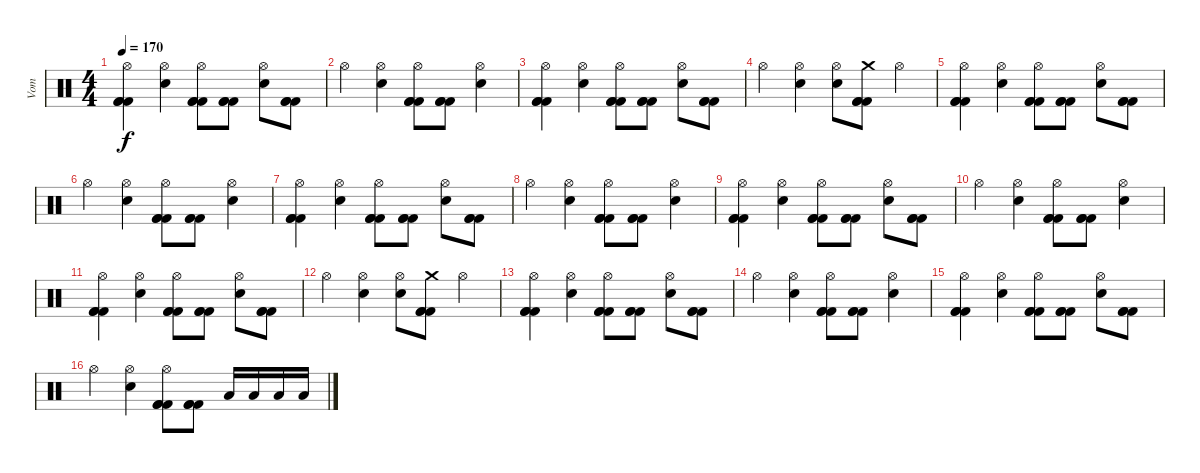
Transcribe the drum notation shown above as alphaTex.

\track ("Vom" "Vom") {instrument percussion}
\staff {score}
\articulation defaults
\ts (4 4)
\tempo 170
\clef neutral
\ks c
("Hi-Hat (open)" "Kick (hit) 2" "Kick (hit) 2" "Kick (hit) 2").4{dy f} ("Hi-Hat (open)" "Snare (hit) 2").4 ("Hi-Hat (open)" "Kick (hit) 2" "Kick (hit) 2" "Kick (hit) 2").8 ("Kick (hit) 2" "Kick (hit) 2" "Kick (hit) 2").8 ("Hi-Hat (open)" "Snare (hit) 2").8 ("Kick (hit) 2" "Kick (hit) 2" "Kick (hit) 2").8 |
"Hi-Hat (open)".4 ("Hi-Hat (open)" "Snare (hit) 2").4 ("Hi-Hat (open)" "Kick (hit) 2" "Kick (hit) 2" "Kick (hit) 2").8 ("Kick (hit) 2" "Kick (hit) 2" "Kick (hit) 2").8 ("Hi-Hat (open)" "Snare (hit) 2").4 |
("Hi-Hat (open)" "Kick (hit) 2" "Kick (hit) 2" "Kick (hit) 2").4 ("Hi-Hat (open)" "Snare (hit) 2").4 ("Hi-Hat (open)" "Kick (hit) 2" "Kick (hit) 2" "Kick (hit) 2").8 ("Kick (hit) 2" "Kick (hit) 2" "Kick (hit) 2").8 ("Hi-Hat (open)" "Snare (hit) 2").8 ("Kick (hit) 2" "Kick (hit) 2" "Kick (hit) 2").8 |
"Hi-Hat (open)".4 ("Hi-Hat (open)" "Snare (hit) 2").4 ("Hi-Hat (open)" "Snare (hit) 2").8 ("Crash medium (hit)" "Kick (hit) 2" "Kick (hit) 2" "Kick (hit) 2").8 "Hi-Hat (open)".4 |
("Hi-Hat (open)" "Kick (hit) 2" "Kick (hit) 2" "Kick (hit) 2").4 ("Hi-Hat (open)" "Snare (hit) 2").4 ("Hi-Hat (open)" "Kick (hit) 2" "Kick (hit) 2" "Kick (hit) 2").8 ("Kick (hit) 2" "Kick (hit) 2" "Kick (hit) 2").8 ("Hi-Hat (open)" "Snare (hit) 2").8 ("Kick (hit) 2" "Kick (hit) 2" "Kick (hit) 2").8 |
"Hi-Hat (open)".4 ("Hi-Hat (open)" "Snare (hit) 2").4 ("Hi-Hat (open)" "Kick (hit) 2" "Kick (hit) 2" "Kick (hit) 2").8 ("Kick (hit) 2" "Kick (hit) 2" "Kick (hit) 2").8 ("Hi-Hat (open)" "Snare (hit) 2").4 |
("Hi-Hat (open)" "Kick (hit) 2" "Kick (hit) 2" "Kick (hit) 2").4 ("Hi-Hat (open)" "Snare (hit) 2").4 ("Hi-Hat (open)" "Kick (hit) 2" "Kick (hit) 2" "Kick (hit) 2").8 ("Kick (hit) 2" "Kick (hit) 2" "Kick (hit) 2").8 ("Hi-Hat (open)" "Snare (hit) 2").8 ("Kick (hit) 2" "Kick (hit) 2" "Kick (hit) 2").8 |
"Hi-Hat (open)".4 ("Hi-Hat (open)" "Snare (hit) 2").4 ("Hi-Hat (open)" "Kick (hit) 2" "Kick (hit) 2" "Kick (hit) 2").8 ("Kick (hit) 2" "Kick (hit) 2" "Kick (hit) 2").8 ("Hi-Hat (open)" "Snare (hit) 2").4 |
("Hi-Hat (open)" "Kick (hit) 2" "Kick (hit) 2" "Kick (hit) 2").4 ("Hi-Hat (open)" "Snare (hit) 2").4 ("Hi-Hat (open)" "Kick (hit) 2" "Kick (hit) 2" "Kick (hit) 2").8 ("Kick (hit) 2" "Kick (hit) 2" "Kick (hit) 2").8 ("Hi-Hat (open)" "Snare (hit) 2").8 ("Kick (hit) 2" "Kick (hit) 2" "Kick (hit) 2").8 |
"Hi-Hat (open)".4 ("Hi-Hat (open)" "Snare (hit) 2").4 ("Hi-Hat (open)" "Kick (hit) 2" "Kick (hit) 2" "Kick (hit) 2").8 ("Kick (hit) 2" "Kick (hit) 2" "Kick (hit) 2").8 ("Hi-Hat (open)" "Snare (hit) 2").4 |
("Hi-Hat (open)" "Kick (hit) 2" "Kick (hit) 2" "Kick (hit) 2").4 ("Hi-Hat (open)" "Snare (hit) 2").4 ("Hi-Hat (open)" "Kick (hit) 2" "Kick (hit) 2" "Kick (hit) 2").8 ("Kick (hit) 2" "Kick (hit) 2" "Kick (hit) 2").8 ("Hi-Hat (open)" "Snare (hit) 2").8 ("Kick (hit) 2" "Kick (hit) 2" "Kick (hit) 2").8 |
"Hi-Hat (open)".4 ("Hi-Hat (open)" "Snare (hit) 2").4 ("Hi-Hat (open)" "Snare (hit) 2").8 ("Crash medium (hit)" "Kick (hit) 2" "Kick (hit) 2" "Kick (hit) 2").8 "Hi-Hat (open)".4 |
("Hi-Hat (open)" "Kick (hit) 2" "Kick (hit) 2" "Kick (hit) 2").4 ("Hi-Hat (open)" "Snare (hit) 2").4 ("Hi-Hat (open)" "Kick (hit) 2" "Kick (hit) 2" "Kick (hit) 2").8 ("Kick (hit) 2" "Kick (hit) 2" "Kick (hit) 2").8 ("Hi-Hat (open)" "Snare (hit) 2").8 ("Kick (hit) 2" "Kick (hit) 2" "Kick (hit) 2").8 |
"Hi-Hat (open)".4 ("Hi-Hat (open)" "Snare (hit) 2").4 ("Hi-Hat (open)" "Kick (hit) 2" "Kick (hit) 2" "Kick (hit) 2").8 ("Kick (hit) 2" "Kick (hit) 2" "Kick (hit) 2").8 ("Hi-Hat (open)" "Snare (hit) 2").4 |
("Hi-Hat (open)" "Kick (hit) 2" "Kick (hit) 2" "Kick (hit) 2").4 ("Hi-Hat (open)" "Snare (hit) 2").4 ("Hi-Hat (open)" "Kick (hit) 2" "Kick (hit) 2" "Kick (hit) 2").8 ("Kick (hit) 2" "Kick (hit) 2" "Kick (hit) 2").8 ("Hi-Hat (open)" "Snare (hit) 2").8 ("Kick (hit) 2" "Kick (hit) 2" "Kick (hit) 2").8 |
"Hi-Hat (open)".4 ("Hi-Hat (open)" "Snare (hit) 2").4 ("Hi-Hat (open)" "Kick (hit) 2" "Kick (hit) 2" "Kick (hit) 2").8 ("Kick (hit) 2" "Kick (hit) 2" "Kick (hit) 2").8 "Low Tom (hit)".16 "Low Tom (hit)".16 "Low Tom (hit)".16 "Low Tom (hit)".16
